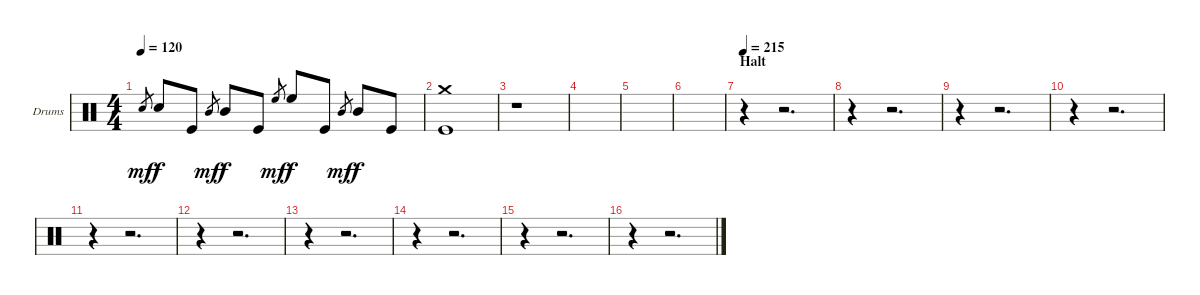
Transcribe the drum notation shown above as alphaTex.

\bracketExtendMode groupsimilarinstruments
\firstSystemTrackNameOrientation horizontal
\otherSystemsTrackNameOrientation horizontal
\track ("Drumkit (Christoph)" "Drums") {instrument percussion}
\staff {score}
\articulation defaults
\ts (4 4)
\tempo 120
\clef neutral
\ks c "Snare (hit) 2".8{gr dy mf} "Snare (hit) 2".8{dy f} "Kick (hit)".8 "Mid Tom (hit)".8{gr dy mf} "Mid Tom (hit)".8{dy f} "Kick (hit)".8 "High Floor Tom (hit)".8{gr dy mf} "High Floor Tom (hit)".8{dy f} "Kick (hit)".8 "Mid Tom (hit)".8{gr dy mf} "Mid Tom (hit)".8{dy f} "Kick (hit)".8
|
("Crash medium (hit)" "Kick (hit)").1 |
r.1 |
|
|
|
\section ("" "Halt")
\tempo 215
r.4 r.2{d} |
r.4 r.2{d} |
r.4 r.2{d} |
r.4 r.2{d} |
r.4 r.2{d} |
r.4 r.2{d} |
r.4 r.2{d} |
r.4 r.2{d} |
r.4 r.2{d} |
r.4 r.2{d}
